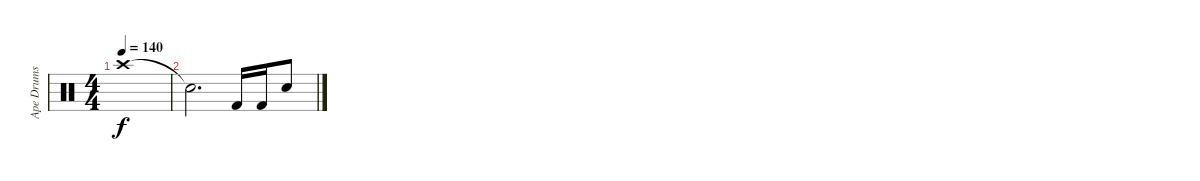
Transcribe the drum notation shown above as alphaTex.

\track ("Ape Drums" "Ape Drums") {instrument percussion}
\staff {score}
\articulation defaults
\ts (4 4)
\tempo 140
\clef neutral
\ks c "Crash high (hit)".1{dy f}
|
"Snare (hit)"{t}.2{d} "Kick (hit) 2".16 "Kick (hit) 2".16 "Snare (hit) 2".8
